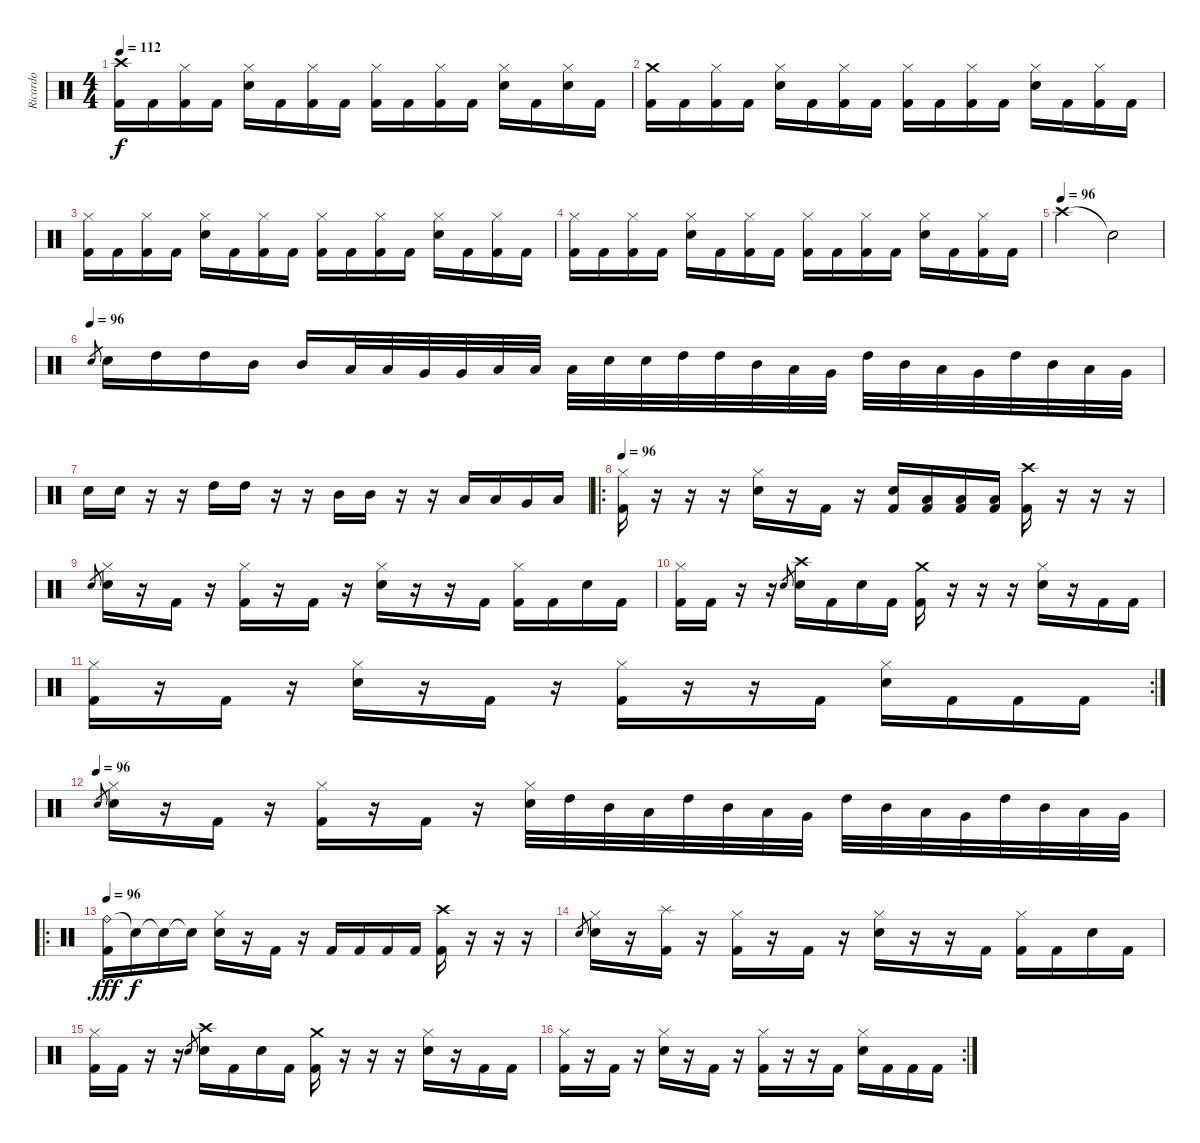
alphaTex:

\track ("Ricardo" "Ricardo") {instrument percussion}
\staff {score}
\articulation defaults
\ts (4 4)
\tempo 112
\clef neutral
\ks c
("Crash high (hit)" "Kick (hit) 2").16{dy f} "Kick (hit) 2".16 ("Hi-Hat (closed)" "Kick (hit) 2").16 "Kick (hit) 2".16 ("Hi-Hat (closed)" "Snare (hit) 2").16 "Kick (hit) 2".16 ("Hi-Hat (closed)" "Kick (hit) 2").16 "Kick (hit) 2".16 ("Hi-Hat (closed)" "Kick (hit) 2").16 "Kick (hit) 2".16 ("Hi-Hat (closed)" "Kick (hit) 2").16 "Kick (hit) 2".16 ("Hi-Hat (closed)" "Snare (hit) 2").16 "Kick (hit) 2".16 ("Hi-Hat (closed)" "Snare (hit) 2").16 "Kick (hit) 2".16 |
("Crash medium (hit)" "Kick (hit) 2").16 "Kick (hit) 2".16 ("Hi-Hat (closed)" "Kick (hit) 2").16 "Kick (hit) 2".16 ("Hi-Hat (closed)" "Snare (hit) 2").16 "Kick (hit) 2".16 ("Hi-Hat (closed)" "Kick (hit) 2").16 "Kick (hit) 2".16 ("Hi-Hat (closed)" "Kick (hit) 2").16 "Kick (hit) 2".16 ("Hi-Hat (closed)" "Kick (hit) 2").16 "Kick (hit) 2".16 ("Hi-Hat (closed)" "Snare (hit) 2").16 "Kick (hit) 2".16 ("Hi-Hat (closed)" "Kick (hit) 2").16 "Kick (hit) 2".16 |
("Hi-Hat (closed)" "Kick (hit) 2").16 "Kick (hit) 2".16 ("Hi-Hat (closed)" "Kick (hit) 2").16 "Kick (hit) 2".16 ("Hi-Hat (closed)" "Snare (hit) 2").16 "Kick (hit) 2".16 ("Hi-Hat (closed)" "Kick (hit) 2").16 "Kick (hit) 2".16 ("Hi-Hat (closed)" "Kick (hit) 2").16 "Kick (hit) 2".16 ("Hi-Hat (closed)" "Kick (hit) 2").16 "Kick (hit) 2".16 ("Hi-Hat (closed)" "Snare (hit) 2").16 "Kick (hit) 2".16 ("Hi-Hat (closed)" "Kick (hit) 2").16 "Kick (hit) 2".16 |
("Hi-Hat (closed)" "Kick (hit) 2").16 "Kick (hit) 2".16 ("Hi-Hat (closed)" "Kick (hit) 2").16 "Kick (hit) 2".16 ("Hi-Hat (closed)" "Snare (hit) 2").16 "Kick (hit) 2".16 ("Hi-Hat (closed)" "Kick (hit) 2").16 "Kick (hit) 2".16 ("Hi-Hat (closed)" "Kick (hit) 2").16 "Kick (hit) 2".16 ("Hi-Hat (closed)" "Kick (hit) 2").16 "Kick (hit) 2".16 ("Hi-Hat (closed)" "Snare (hit) 2").16 "Kick (hit) 2".16 ("Hi-Hat (closed)" "Kick (hit) 2").16 "Kick (hit) 2".16 |
\tempo (96)
"Crash high (hit)".2 "Snare (hit)"{t}.2 |
\tempo (96)
"Snare (hit) 2".8{gr} "Snare (hit) 2".16 "High Tom (hit)".16 "High Tom (hit)".16 "Mid Tom (hit)".16 "Mid Tom (hit)".16 "Low Tom (hit)".32 "Low Tom (hit)".32 "Very Low Tom (hit)".32 "Very Low Tom (hit)".32 "Low Floor Tom (hit)".32 "Low Floor Tom (hit)".32 "Low Floor Tom (hit)".32 "Snare (hit) 2".32 "Snare (hit) 2".32 "High Tom (hit)".32 "High Tom (hit)".32 "Mid Tom (hit)".32 "Low Tom (hit)".32 "Very Low Tom (hit)".32 "High Tom (hit)".32 "Mid Tom (hit)".32 "Low Tom (hit)".32 "Very Low Tom (hit)".32 "High Tom (hit)".32 "Mid Tom (hit)".32 "Low Tom (hit)".32 "Very Low Tom (hit)".32 |
"Snare (hit) 2".16 "Snare (hit) 2".16 r.16 r.16 "High Tom (hit)".16 "High Tom (hit)".16 r.16 r.16 "Mid Tom (hit)".16 "Mid Tom (hit)".16 r.16 r.16 "Low Tom (hit)".16 "Low Tom (hit)".16 "Very Low Tom (hit)".16 "Low Floor Tom (hit)".16 |
\ro
\tempo 96
("Hi-Hat (closed)" "Kick (hit) 2").16 r.16 r.16 r.16 ("Hi-Hat (closed)" "Snare (hit) 2").16 r.16 "Kick (hit) 2".16 r.16 ("Snare (hit) 2" "Kick (hit) 2").16 ("Low Floor Tom (hit)" "Kick (hit) 2").16 ("Low Floor Tom (hit)" "Kick (hit) 2").16 ("Low Floor Tom (hit)" "Kick (hit) 2").16 ("Crash high (hit)" "Kick (hit) 2").16 r.16 r.16 r.16 |
"Snare (hit) 2".8{gr} ("Hi-Hat (closed)" "Snare (hit) 2").16 r.16 "Kick (hit) 2".16 r.16 ("Hi-Hat (closed)" "Kick (hit) 2").16 r.16 "Kick (hit) 2".16 r.16 ("Hi-Hat (closed)" "Snare (hit) 2").16 r.16 r.16 "Kick (hit) 2".16 ("Hi-Hat (closed)" "Kick (hit) 2").16 "Kick (hit) 2".16 "Snare (hit) 2".16 "Kick (hit) 2".16 |
("Hi-Hat (closed)" "Kick (hit) 2").16 "Kick (hit) 2".16 r.16 r.16 "Snare (hit) 2".8{gr} ("Crash high (hit)" "Snare (hit) 2").16 "Kick (hit) 2".16 "Snare (hit) 2".16 "Kick (hit) 2".16 ("Crash medium (hit)" "Kick (hit) 2").16 r.16 r.16 r.16 ("Hi-Hat (closed)" "Snare (hit) 2").16 r.16 "Kick (hit) 2".16 "Kick (hit) 2".16 |
\rc 2
("Hi-Hat (closed)" "Kick (hit) 2").16 r.16 "Kick (hit) 2".16 r.16 ("Hi-Hat (closed)" "Snare (hit) 2").16 r.16 "Kick (hit) 2".16 r.16 ("Hi-Hat (closed)" "Kick (hit) 2").16 r.16 r.16 "Kick (hit) 2".16 ("Hi-Hat (closed)" "Snare (hit) 2").16 "Kick (hit) 2".16 "Kick (hit) 2".16 "Kick (hit) 2".16 |
\tempo (96)
"Snare (hit) 2".8{gr} ("Hi-Hat (closed)" "Snare (hit) 2").16 r.16 "Kick (hit) 2".16 r.16 ("Hi-Hat (closed)" "Kick (hit) 2").16 r.16 "Kick (hit) 2".16 r.16 ("Hi-Hat (closed)" "Snare (hit) 2").32 "High Tom (hit)".32 "Mid Tom (hit)".32 "Low Tom (hit)".32 "High Tom (hit)".32 "Mid Tom (hit)".32 "Low Tom (hit)".32 "Very Low Tom (hit)".32 "High Tom (hit)".32 "Mid Tom (hit)".32 "Low Tom (hit)".32 "Very Low Tom (hit)".32 "High Tom (hit)".32 "Mid Tom (hit)".32 "Low Tom (hit)".32 "Very Low Tom (hit)".32 |
\ro
\tempo 96
("Ride (bell)" "Kick (hit) 2").16{dy fff} "Snare (hit)"{t}.16{dy f} "Snare (hit)"{t}.16 "Snare (hit)"{t}.16 ("Hi-Hat (closed)" "Snare (hit) 2").16 r.16 "Kick (hit) 2".16 r.16 "Kick (hit) 2".16 "Kick (hit) 2".16 "Kick (hit) 2".16 "Kick (hit) 2".16 ("Crash high (hit)" "Kick (hit) 2").16 r.16 r.16 r.16 |
"Snare (hit) 2".8{gr} ("Hi-Hat (closed)" "Snare (hit) 2").16 r.16 ("Splash (hit)" "Kick (hit) 2").16 r.16 ("Hi-Hat (closed)" "Kick (hit) 2").16 r.16 "Kick (hit) 2".16 r.16 ("Hi-Hat (closed)" "Snare (hit) 2").16 r.16 r.16 "Kick (hit) 2".16 ("Hi-Hat (closed)" "Kick (hit) 2").16 "Kick (hit) 2".16 "Snare (hit) 2".16 "Kick (hit) 2".16 |
("Hi-Hat (closed)" "Kick (hit) 2").16 "Kick (hit) 2".16 r.16 r.16 "Snare (hit) 2".8{gr} ("Crash high (hit)" "Snare (hit) 2").16 "Kick (hit) 2".16 "Snare (hit) 2".16 "Kick (hit) 2".16 ("Crash medium (hit)" "Kick (hit) 2").16 r.16 r.16 r.16 ("Hi-Hat (closed)" "Snare (hit) 2").16 r.16 "Kick (hit) 2".16 "Kick (hit) 2".16 |
\rc 2
("Hi-Hat (closed)" "Kick (hit) 2").16 r.16 "Kick (hit) 2".16 r.16 ("Hi-Hat (closed)" "Snare (hit) 2").16 r.16 "Kick (hit) 2".16 r.16 ("Hi-Hat (closed)" "Kick (hit) 2").16 r.16 r.16 "Kick (hit) 2".16 ("Hi-Hat (closed)" "Snare (hit) 2").16 "Kick (hit) 2".16 "Kick (hit) 2".16 "Kick (hit) 2".16
